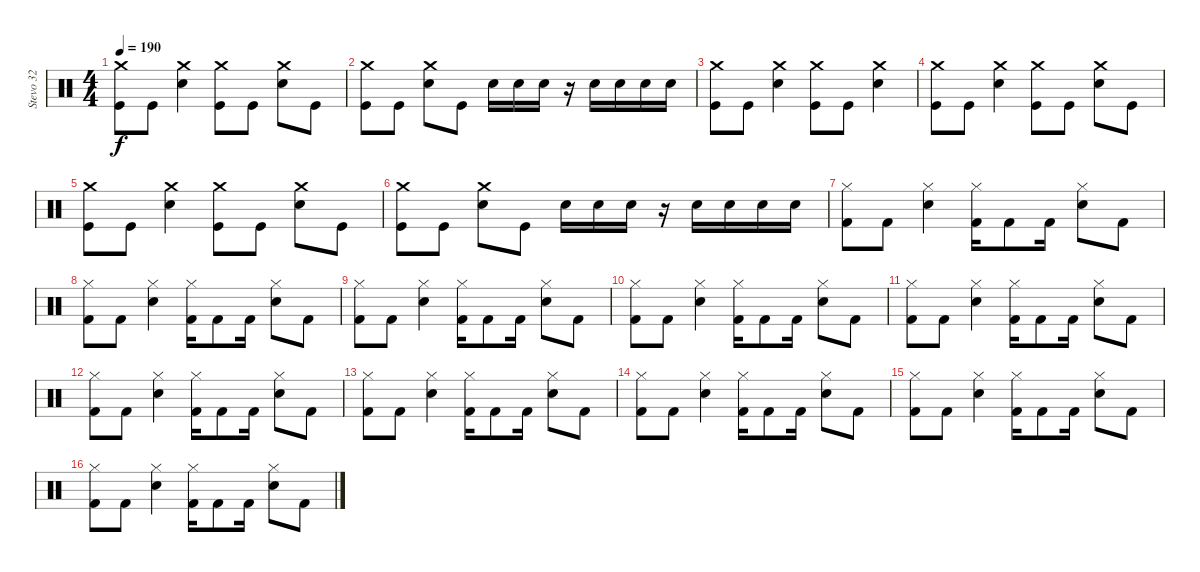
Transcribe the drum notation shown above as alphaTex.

\track ("Stevo 32" "Stevo 32") {instrument percussion}
\staff {score}
\articulation defaults
\ts (4 4)
\tempo 190
\clef neutral
\ks c
("Crash medium (hit)" "Kick (hit)").8{dy f} "Kick (hit)".8 ("Crash medium (hit)" "Electric Snare (hit)").4 ("Crash medium (hit)" "Kick (hit)").8 "Kick (hit)".8 ("Crash medium (hit)" "Electric Snare (hit)").8 "Kick (hit)".8 |
("Crash medium (hit)" "Kick (hit)").8 "Kick (hit)".8 ("Crash medium (hit)" "Electric Snare (hit)").8 "Kick (hit)".8 "Electric Snare (hit)".16 "Electric Snare (hit)".16 "Electric Snare (hit)".16 r.16 "Electric Snare (hit)".16 "Electric Snare (hit)".16 "Electric Snare (hit)".16 "Electric Snare (hit)".16 |
("Crash medium (hit)" "Kick (hit)").8 "Kick (hit)".8 ("Crash medium (hit)" "Electric Snare (hit)").4 ("Crash medium (hit)" "Kick (hit)").8 "Kick (hit)".8 ("Crash medium (hit)" "Electric Snare (hit)").4 |
("Crash medium (hit)" "Kick (hit)").8 "Kick (hit)".8 ("Crash medium (hit)" "Electric Snare (hit)").4 ("Crash medium (hit)" "Kick (hit)").8 "Kick (hit)".8 ("Crash medium (hit)" "Electric Snare (hit)").8 "Kick (hit)".8 |
("Crash medium (hit)" "Kick (hit)").8 "Kick (hit)".8 ("Crash medium (hit)" "Electric Snare (hit)").4 ("Crash medium (hit)" "Kick (hit)").8 "Kick (hit)".8 ("Crash medium (hit)" "Electric Snare (hit)").8 "Kick (hit)".8 |
("Crash medium (hit)" "Kick (hit)").8 "Kick (hit)".8 ("Crash medium (hit)" "Electric Snare (hit)").8 "Kick (hit)".8 "Electric Snare (hit)".16 "Electric Snare (hit)".16 "Electric Snare (hit)".16 r.16 "Electric Snare (hit)".16 "Electric Snare (hit)".16 "Electric Snare (hit)".16 "Electric Snare (hit)".16 |
("Hi-Hat (closed)" "Kick (hit) 2").8 "Kick (hit) 2".8 ("Hi-Hat (closed)" "Electric Snare (hit)").4 ("Hi-Hat (closed)" "Kick (hit) 2").16 "Kick (hit) 2".8 "Kick (hit) 2".16 ("Hi-Hat (closed)" "Electric Snare (hit)").8 "Kick (hit) 2".8 |
("Hi-Hat (closed)" "Kick (hit) 2").8 "Kick (hit) 2".8 ("Hi-Hat (closed)" "Electric Snare (hit)").4 ("Hi-Hat (closed)" "Kick (hit) 2").16 "Kick (hit) 2".8 "Kick (hit) 2".16 ("Hi-Hat (closed)" "Electric Snare (hit)").8 "Kick (hit) 2".8 |
("Hi-Hat (closed)" "Kick (hit) 2").8 "Kick (hit) 2".8 ("Hi-Hat (closed)" "Electric Snare (hit)").4 ("Hi-Hat (closed)" "Kick (hit) 2").16 "Kick (hit) 2".8 "Kick (hit) 2".16 ("Hi-Hat (closed)" "Electric Snare (hit)").8 "Kick (hit) 2".8 |
("Hi-Hat (closed)" "Kick (hit) 2").8 "Kick (hit) 2".8 ("Hi-Hat (closed)" "Electric Snare (hit)").4 ("Hi-Hat (closed)" "Kick (hit) 2").16 "Kick (hit) 2".8 "Kick (hit) 2".16 ("Hi-Hat (closed)" "Electric Snare (hit)").8 "Kick (hit) 2".8 |
("Hi-Hat (closed)" "Kick (hit) 2").8 "Kick (hit) 2".8 ("Hi-Hat (closed)" "Electric Snare (hit)").4 ("Hi-Hat (closed)" "Kick (hit) 2").16 "Kick (hit) 2".8 "Kick (hit) 2".16 ("Hi-Hat (closed)" "Electric Snare (hit)").8 "Kick (hit) 2".8 |
("Hi-Hat (closed)" "Kick (hit) 2").8 "Kick (hit) 2".8 ("Hi-Hat (closed)" "Electric Snare (hit)").4 ("Hi-Hat (closed)" "Kick (hit) 2").16 "Kick (hit) 2".8 "Kick (hit) 2".16 ("Hi-Hat (closed)" "Electric Snare (hit)").8 "Kick (hit) 2".8 |
("Hi-Hat (closed)" "Kick (hit) 2").8 "Kick (hit) 2".8 ("Hi-Hat (closed)" "Electric Snare (hit)").4 ("Hi-Hat (closed)" "Kick (hit) 2").16 "Kick (hit) 2".8 "Kick (hit) 2".16 ("Hi-Hat (closed)" "Electric Snare (hit)").8 "Kick (hit) 2".8 |
("Hi-Hat (closed)" "Kick (hit) 2").8 "Kick (hit) 2".8 ("Hi-Hat (closed)" "Electric Snare (hit)").4 ("Hi-Hat (closed)" "Kick (hit) 2").16 "Kick (hit) 2".8 "Kick (hit) 2".16 ("Hi-Hat (closed)" "Electric Snare (hit)").8 "Kick (hit) 2".8 |
("Hi-Hat (closed)" "Kick (hit) 2").8 "Kick (hit) 2".8 ("Hi-Hat (closed)" "Electric Snare (hit)").4 ("Hi-Hat (closed)" "Kick (hit) 2").16 "Kick (hit) 2".8 "Kick (hit) 2".16 ("Hi-Hat (closed)" "Electric Snare (hit)").8 "Kick (hit) 2".8 |
("Hi-Hat (closed)" "Kick (hit) 2").8 "Kick (hit) 2".8 ("Hi-Hat (closed)" "Electric Snare (hit)").4 ("Hi-Hat (closed)" "Kick (hit) 2").16 "Kick (hit) 2".8 "Kick (hit) 2".16 ("Hi-Hat (closed)" "Electric Snare (hit)").8 "Kick (hit) 2".8
